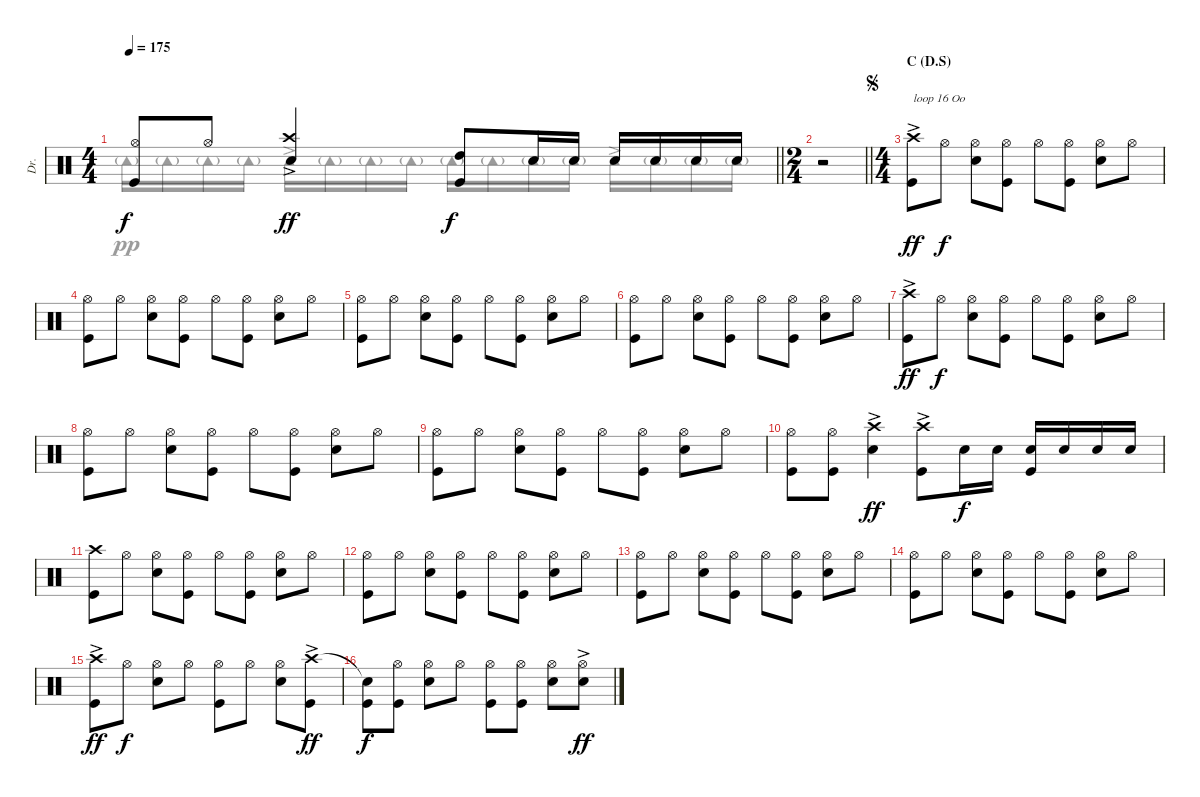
\track ("Dr." "Dr.") {instrument percussion}
\staff {score}
\articulation defaults
\voice
\ts (4 4)
\tempo 175
\clef neutral
\barLineRight lightlight
\ks c
("Hi-Hat (open)" "Kick (hit)").8{dy f} "Hi-Hat (open)".8 ("Crash high (hit)"{ac} "Snare (hit) 2"{ac}).4{dy ff} ("High Tom (hit)" "Kick (hit)").8{dy f} "Snare (hit) 2".16 "Snare (hit) 2".16 "Snare (hit) 2".16 "Snare (hit) 2".16 "Snare (hit) 2".16 "Snare (hit) 2".16 |
\ts (2 4)
\barLineRight lightlight
r.2 |
\ts (4 4)
\section ("" "C (D.S)")
\jump segno
("Crash high (hit)"{ac} "Kick (hit)"{ac}).8{txt "loop 16 Oo" dy ff} "Hi-Hat (open)".8{dy f} ("Hi-Hat (open)" "Snare (hit) 2").8 ("Hi-Hat (open)" "Kick (hit)").8 "Hi-Hat (open)".8 ("Hi-Hat (open)" "Kick (hit)").8 ("Hi-Hat (open)" "Snare (hit) 2").8 "Hi-Hat (open)".8 |
("Hi-Hat (open)" "Kick (hit)").8 "Hi-Hat (open)".8 ("Hi-Hat (open)" "Snare (hit) 2").8 ("Hi-Hat (open)" "Kick (hit)").8 "Hi-Hat (open)".8 ("Hi-Hat (open)" "Kick (hit)").8 ("Hi-Hat (open)" "Snare (hit) 2").8 "Hi-Hat (open)".8 |
("Hi-Hat (open)" "Kick (hit)").8 "Hi-Hat (open)".8 ("Hi-Hat (open)" "Snare (hit) 2").8 ("Hi-Hat (open)" "Kick (hit)").8 "Hi-Hat (open)".8 ("Hi-Hat (open)" "Kick (hit)").8 ("Hi-Hat (open)" "Snare (hit) 2").8 "Hi-Hat (open)".8 |
("Hi-Hat (open)" "Kick (hit)").8 "Hi-Hat (open)".8 ("Hi-Hat (open)" "Snare (hit) 2").8 ("Hi-Hat (open)" "Kick (hit)").8 "Hi-Hat (open)".8 ("Hi-Hat (open)" "Kick (hit)").8 ("Hi-Hat (open)" "Snare (hit) 2").8 "Hi-Hat (open)".8 |
("Crash high (hit)"{ac} "Kick (hit)"{ac}).8{dy ff} "Hi-Hat (open)".8{dy f} ("Hi-Hat (open)" "Snare (hit) 2").8 ("Hi-Hat (open)" "Kick (hit)").8 "Hi-Hat (open)".8 ("Hi-Hat (open)" "Kick (hit)").8 ("Hi-Hat (open)" "Snare (hit) 2").8 "Hi-Hat (open)".8 |
("Hi-Hat (open)" "Kick (hit)").8 "Hi-Hat (open)".8 ("Hi-Hat (open)" "Snare (hit) 2").8 ("Hi-Hat (open)" "Kick (hit)").8 "Hi-Hat (open)".8 ("Hi-Hat (open)" "Kick (hit)").8 ("Hi-Hat (open)" "Snare (hit) 2").8 "Hi-Hat (open)".8 |
("Hi-Hat (open)" "Kick (hit)").8 "Hi-Hat (open)".8 ("Hi-Hat (open)" "Snare (hit) 2").8 ("Hi-Hat (open)" "Kick (hit)").8 "Hi-Hat (open)".8 ("Hi-Hat (open)" "Kick (hit)").8 ("Hi-Hat (open)" "Snare (hit) 2").8 "Hi-Hat (open)".8 |
("Hi-Hat (open)" "Kick (hit)").8 ("Hi-Hat (open)" "Kick (hit)").8 ("Crash high (hit)"{ac} "Snare (hit) 2"{ac}).4{dy ff} ("Crash high (hit)"{ac} "Kick (hit)"{ac}).8 "Snare (hit) 2".16{dy f} "Snare (hit) 2".16 ("Snare (hit) 2" "Kick (hit)").16 "Snare (hit) 2".16 "Snare (hit) 2".16 "Snare (hit) 2".16 |
("Crash high (hit)" "Kick (hit)").8 "Hi-Hat (open)".8 ("Hi-Hat (open)" "Snare (hit) 2").8 ("Hi-Hat (open)" "Kick (hit)").8 "Hi-Hat (open)".8 ("Hi-Hat (open)" "Kick (hit)").8 ("Hi-Hat (open)" "Snare (hit) 2").8 "Hi-Hat (open)".8 |
("Hi-Hat (open)" "Kick (hit)").8 "Hi-Hat (open)".8 ("Hi-Hat (open)" "Snare (hit) 2").8 ("Hi-Hat (open)" "Kick (hit)").8 "Hi-Hat (open)".8 ("Hi-Hat (open)" "Kick (hit)").8 ("Hi-Hat (open)" "Snare (hit) 2").8 "Hi-Hat (open)".8 |
("Hi-Hat (open)" "Kick (hit)").8 "Hi-Hat (open)".8 ("Hi-Hat (open)" "Snare (hit) 2").8 ("Hi-Hat (open)" "Kick (hit)").8 "Hi-Hat (open)".8 ("Hi-Hat (open)" "Kick (hit)").8 ("Hi-Hat (open)" "Snare (hit) 2").8 "Hi-Hat (open)".8 |
("Hi-Hat (open)" "Kick (hit)").8 "Hi-Hat (open)".8 ("Hi-Hat (open)" "Snare (hit) 2").8 ("Hi-Hat (open)" "Kick (hit)").8 "Hi-Hat (open)".8 ("Hi-Hat (open)" "Kick (hit)").8 ("Hi-Hat (open)" "Snare (hit) 2").8 "Hi-Hat (open)".8 |
("Crash high (hit)"{ac} "Kick (hit)"{ac}).8{dy ff} "Hi-Hat (open)".8{dy f} ("Hi-Hat (open)" "Snare (hit) 2").8 "Hi-Hat (open)".8 ("Hi-Hat (open)" "Kick (hit)").8 "Hi-Hat (open)".8 ("Hi-Hat (open)" "Snare (hit) 2").8 ("Crash high (hit)"{ac} "Kick (hit)"{ac}).8{dy ff} |
("Snare (hit)"{t} "Kick (hit)").8{dy f} ("Hi-Hat (open)" "Kick (hit)").8 ("Hi-Hat (open)" "Snare (hit) 2").8 "Hi-Hat (open)".8 ("Hi-Hat (open)" "Kick (hit)").8 ("Hi-Hat (open)" "Kick (hit)").8 ("Hi-Hat (open)" "Snare (hit) 2").8 ("Hi-Hat (open)"{ac} "Snare (hit) 2"{ac}).8{dy ff}
\voice
\clef neutral
\ottava regular
\simile none
\barLineRight lightlight
\ks c "Tambourine (hit)"{g}.16{dy pp} "Tambourine (hit)"{g}.16 "Tambourine (hit)"{g}.16 "Tambourine (hit)"{g}.16 "Tambourine (hit)"{ac}.16 "Tambourine (hit)"{g}.16 "Tambourine (hit)"{g}.16 "Tambourine (hit)"{g}.16 "Tambourine (hit)"{g}.16 "Tambourine (hit)"{g}.16 "Tambourine (hit)"{g}.16 "Tambourine (hit)"{g}.16 "Tambourine (hit)"{ac}.16 "Tambourine (hit)"{g}.16 "Tambourine (hit)"{g}.16 "Tambourine (hit)"{g}.16
|
\barLineRight lightlight
|
|
|
|
|
|
|
|
|
|
|
|
|
|
